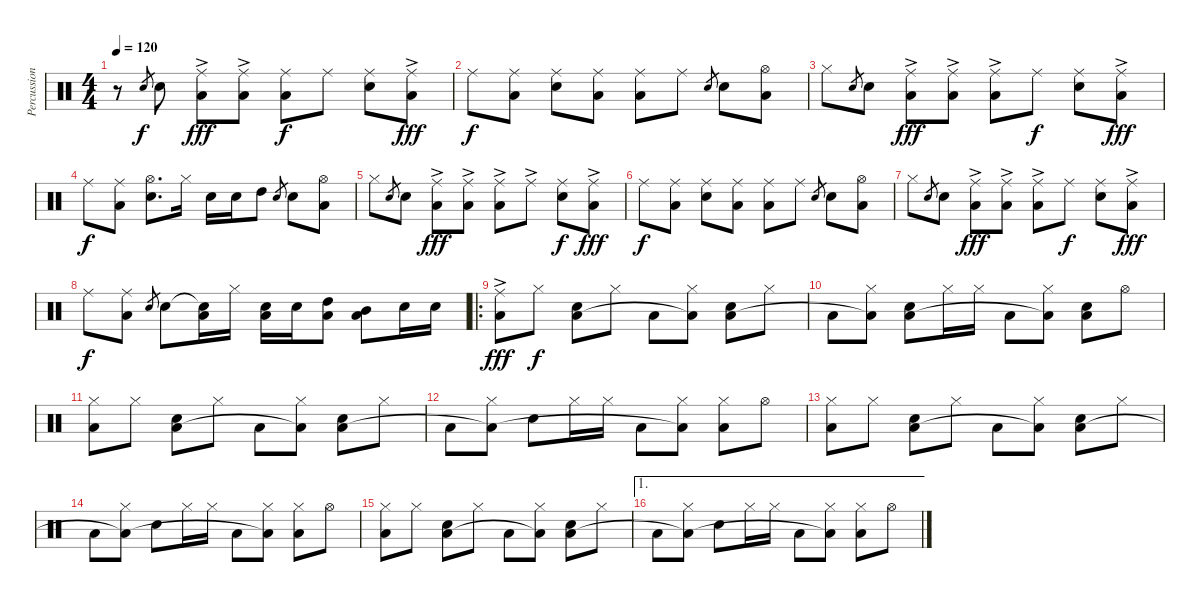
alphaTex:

\track ("Percussion" "Percussion") {instrument percussion}
\staff {score}
\articulation defaults
\ts (4 4)
\tempo 120
\clef neutral
\ks c
r.8{dy f} "Snare (hit) 2".8{gr} "Snare (hit) 2".8 ("Ride (middle)"{ac} "Low Floor Tom (hit)").8{dy fff} ("Ride (middle)"{ac} "Low Floor Tom (hit)").8 ("Ride (middle)" "Low Floor Tom (hit)").8{dy f} "Ride (middle)".8 ("Ride (middle)" "Snare (hit) 2").8 ("Ride (middle)"{ac} "Low Floor Tom (hit)").8{dy fff} |
"Ride (middle)".8{dy f} ("Ride (middle)" "Low Floor Tom (hit)").8 ("Ride (middle)" "Snare (hit) 2").8 ("Ride (middle)" "Low Floor Tom (hit)").8 ("Ride (middle)" "Low Floor Tom (hit)").8 "Ride (middle)".8 "Snare (hit) 2".8{gr} "Snare (hit) 2".8 ("Hi-Hat (open)" "Low Floor Tom (hit)").8 |
"Hi-Hat (closed)".8 "Snare (hit) 2".8{gr} "Snare (hit) 2".8 ("Ride (middle)"{ac} "Low Floor Tom (hit)").8{dy fff} ("Ride (middle)"{ac} "Low Floor Tom (hit)").8 ("Ride (middle)"{ac} "Low Floor Tom (hit)").8 "Ride (middle)".8{dy f} ("Ride (middle)" "Snare (hit) 2").8 ("Ride (middle)"{ac} "Low Floor Tom (hit)").8{dy fff} |
"Ride (middle)".8{dy f} ("Ride (middle)" "Low Floor Tom (hit)").8 ("Hi-Hat (open)" "Snare (hit) 2").8{d} "Hi-Hat (closed)".16 "Snare (hit) 2".16 "Snare (hit) 2".16 "High Tom (hit)".8 "Snare (hit) 2".8{gr} "Snare (hit) 2".8 ("Hi-Hat (open)" "Low Floor Tom (hit)").8 |
"Hi-Hat (closed)".8 "Snare (hit) 2".8{gr} "Snare (hit) 2".8 ("Ride (middle)"{ac} "Low Floor Tom (hit)").8{dy fff} ("Ride (middle)"{ac} "Low Floor Tom (hit)").8 ("Ride (middle)"{ac} "Low Floor Tom (hit)").8 "Ride (middle)"{ac}.8 ("Ride (middle)" "Snare (hit) 2").8{dy f} ("Ride (middle)"{ac} "Low Floor Tom (hit)").8{dy fff} |
"Ride (middle)".8{dy f} ("Ride (middle)" "Low Floor Tom (hit)").8 ("Ride (middle)" "Snare (hit) 2").8 ("Ride (middle)" "Low Floor Tom (hit)").8 ("Ride (middle)" "Low Floor Tom (hit)").8 "Ride (middle)".8 "Snare (hit) 2".8{gr} "Snare (hit) 2".8 ("Hi-Hat (open)" "Low Floor Tom (hit)").8 |
"Hi-Hat (closed)".8 "Snare (hit) 2".8{gr} "Snare (hit) 2".8 ("Ride (middle)"{ac} "Low Floor Tom (hit)").8{dy fff} ("Ride (middle)"{ac} "Low Floor Tom (hit)").8 ("Ride (middle)"{ac} "Low Floor Tom (hit)").8 "Ride (middle)".8{dy f} ("Ride (middle)" "Snare (hit) 2").8 ("Ride (middle)"{ac} "Low Floor Tom (hit)").8{dy fff} |
"Ride (middle)".8{dy f} ("Ride (middle)" "Low Floor Tom (hit)").8 "Snare (hit) 2".8{gr} "Snare (hit) 2".8 ("Snare (hit) 2"{t} "Low Floor Tom (hit)").16 "Hi-Hat (closed)".16 ("Snare (hit) 2" "Low Floor Tom (hit)").16 "Snare (hit) 2".16 ("High Tom (hit)" "Low Floor Tom (hit)").8 ("Mid Tom (hit)" "Low Floor Tom (hit)").8 "Snare (hit) 2".16 "Snare (hit) 2".16 |
\ro
("Ride (middle)"{ac} "Low Floor Tom (hit)").8{dy fff} "Hi-Hat (closed)".8{dy f} ("Snare (hit) 2" "Low Floor Tom (hit)").8 "Hi-Hat (closed)".8 "Low Floor Tom (hit)".8 ("Hi-Hat (closed)" "Low Floor Tom (hit)"{t}).8 ("Snare (hit) 2" "Low Floor Tom (hit)").8 "Hi-Hat (closed)".8 |
"Low Floor Tom (hit)".8 ("Hi-Hat (closed)" "Low Floor Tom (hit)"{t}).8 ("Snare (hit) 2" "Low Floor Tom (hit)").8 "Hi-Hat (closed)".16 "Hi-Hat (closed)".16 "Low Floor Tom (hit)".8 ("Hi-Hat (closed)" "Low Floor Tom (hit)"{t}).8 ("Snare (hit) 2" "Low Floor Tom (hit)").8 "Hi-Hat (open)".8 |
("Hi-Hat (closed)" "Low Floor Tom (hit)").8 "Hi-Hat (closed)".8 ("Snare (hit) 2" "Low Floor Tom (hit)").8 "Hi-Hat (closed)".8 "Low Floor Tom (hit)".8 ("Hi-Hat (closed)" "Low Floor Tom (hit)"{t}).8 ("Snare (hit) 2" "Low Floor Tom (hit)").8 "Hi-Hat (closed)".8 |
"Low Floor Tom (hit)".8 ("Hi-Hat (closed)" "Low Floor Tom (hit)"{t}).8 "Snare (hit) 2".8 "Hi-Hat (closed)".16 "Hi-Hat (closed)".16 "Low Floor Tom (hit)".8 ("Hi-Hat (closed)" "Low Floor Tom (hit)"{t}).8 ("Hi-Hat (closed)" "Low Floor Tom (hit)").8 "Hi-Hat (open)".8 |
("Hi-Hat (closed)" "Low Floor Tom (hit)").8 "Hi-Hat (closed)".8 ("Snare (hit) 2" "Low Floor Tom (hit)").8 "Hi-Hat (closed)".8 "Low Floor Tom (hit)".8 ("Hi-Hat (closed)" "Low Floor Tom (hit)"{t}).8 ("Snare (hit) 2" "Low Floor Tom (hit)").8 "Hi-Hat (closed)".8 |
"Low Floor Tom (hit)".8 ("Hi-Hat (closed)" "Low Floor Tom (hit)"{t}).8 "Snare (hit) 2".8 "Hi-Hat (closed)".16 "Hi-Hat (closed)".16 "Low Floor Tom (hit)".8 ("Hi-Hat (closed)" "Low Floor Tom (hit)"{t}).8 ("Hi-Hat (closed)" "Low Floor Tom (hit)").8 "Hi-Hat (open)".8 |
("Hi-Hat (closed)" "Low Floor Tom (hit)").8 "Hi-Hat (closed)".8 ("Snare (hit) 2" "Low Floor Tom (hit)").8 "Hi-Hat (closed)".8 "Low Floor Tom (hit)".8 ("Hi-Hat (closed)" "Low Floor Tom (hit)"{t}).8 ("Snare (hit) 2" "Low Floor Tom (hit)").8 "Hi-Hat (closed)".8 |
\ae 1 "Low Floor Tom (hit)".8
("Hi-Hat (closed)" "Low Floor Tom (hit)"{t}).8 "Snare (hit) 2".8 "Hi-Hat (closed)".16 "Hi-Hat (closed)".16 "Low Floor Tom (hit)".8 ("Hi-Hat (closed)" "Low Floor Tom (hit)"{t}).8 ("Hi-Hat (closed)" "Low Floor Tom (hit)").8 "Hi-Hat (open)".8
